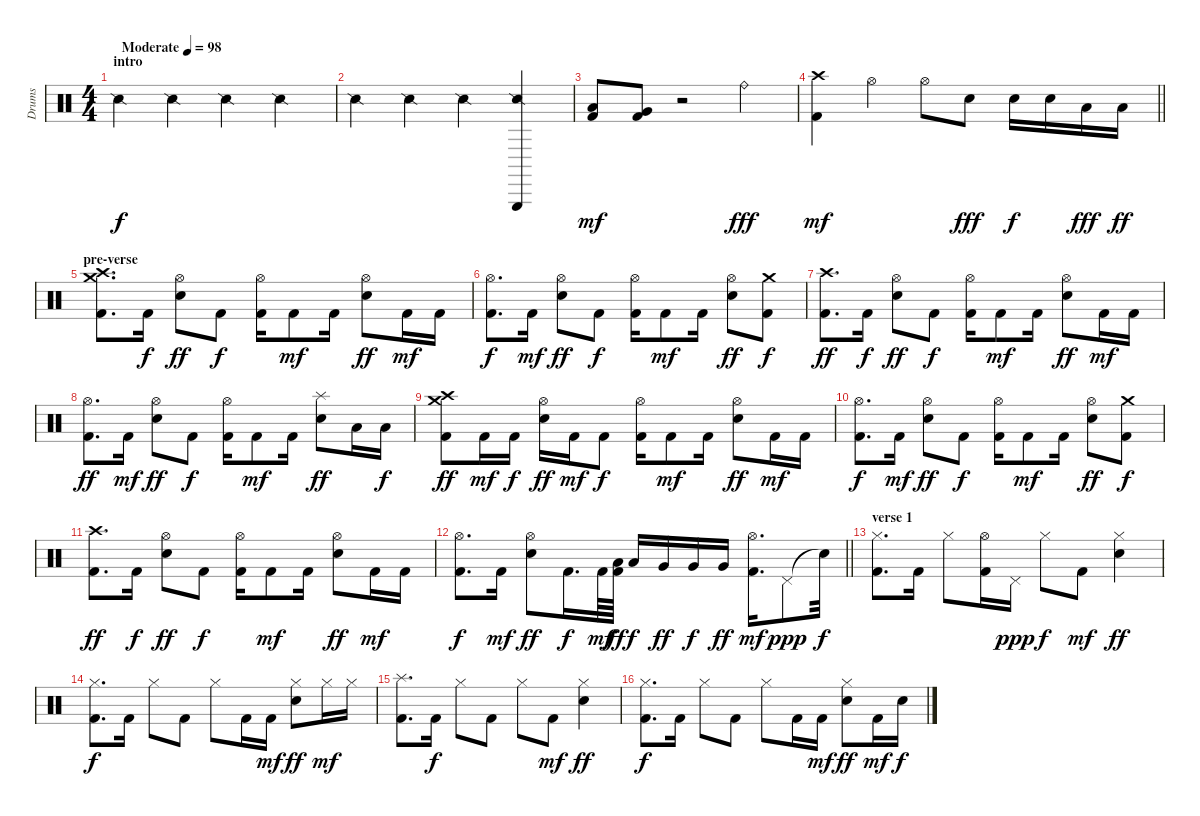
\track ("Drums" "Drums") {instrument percussion}
\staff {score}
\articulation defaults
\ts (4 4)
\section ("" "intro")
\tempo (98 "Moderate")
\clef neutral
\ks c "Snare (side stick) 2".4{dy f} "Snare (side stick) 2".4 "Snare (side stick) 2".4 "Snare (side stick) 2".4
|
"Snare (side stick) 2".4 "Snare (side stick) 2".4 "Snare (side stick) 2".4 ("Triangle (hit)" "Snare (side stick) 2").4 |
("Low Tom (hit)" "Kick (hit) 2").8{dy mf} ("Very Low Tom (hit)" "Kick (hit) 2").8 r.2 "Ride (bell)".4{dy fff} |
\barLineRight lightlight
("Crash high (hit)" "Kick (hit) 2").4{dy mf} "Hi-Hat (open)".4 "Hi-Hat (open)".8 "Electric Snare (hit)".8{dy fff} "Electric Snare (hit)".16{dy f} "Electric Snare (hit)".16 "Low Tom (hit)".16{dy fff} "Low Tom (hit)".16{dy ff} |
\section ("" "pre-verse")
("Crash medium (hit)" "Crash high (hit)" "Kick (hit) 2").8{d} "Kick (hit) 2".16{dy f} ("Hi-Hat (open)" "Electric Snare (hit)").8{dy ff} "Kick (hit) 2".8{dy f} ("Hi-Hat (open)" "Kick (hit) 2").16 "Kick (hit) 2".8{dy mf} "Kick (hit) 2".16 ("Hi-Hat (open)" "Electric Snare (hit)").8{dy ff} "Kick (hit) 2".16{dy mf} "Kick (hit) 2".16 |
("Hi-Hat (open)" "Kick (hit) 2").8{d dy f} "Kick (hit) 2".16{dy mf} ("Hi-Hat (open)" "Electric Snare (hit)").8{dy ff} "Kick (hit) 2".8{dy f} ("Hi-Hat (open)" "Kick (hit) 2").16 "Kick (hit) 2".8{dy mf} "Kick (hit) 2".16 ("Hi-Hat (open)" "Electric Snare (hit)").8{dy ff} ("Crash medium (hit)" "Kick (hit) 2").8{dy f} |
("Crash high (hit)" "Kick (hit) 2").8{d dy ff} "Kick (hit) 2".16{dy f} ("Hi-Hat (open)" "Electric Snare (hit)").8{dy ff} "Kick (hit) 2".8{dy f} ("Hi-Hat (open)" "Kick (hit) 2").16 "Kick (hit) 2".8{dy mf} "Kick (hit) 2".16 ("Hi-Hat (open)" "Electric Snare (hit)").8{dy ff} "Kick (hit) 2".16{dy mf} "Kick (hit) 2".16 |
("Hi-Hat (open)" "Kick (hit) 2").8{d dy ff} "Kick (hit) 2".16{dy mf} ("Hi-Hat (open)" "Electric Snare (hit)").8{dy ff} "Kick (hit) 2".8{dy f} ("Hi-Hat (open)" "Kick (hit) 2").16 "Kick (hit) 2".8{dy mf} "Kick (hit) 2".16 ("Splash (hit)" "Electric Snare (hit)").8{dy ff} "Low Tom (hit)".16 "Low Tom (hit)".16{dy f} |
("Crash medium (hit)" "Crash high (hit)" "Kick (hit) 2").8{dy ff} "Kick (hit) 2".16{dy mf} "Kick (hit) 2".16{dy f} ("Hi-Hat (open)" "Electric Snare (hit)").16{dy ff} "Kick (hit) 2".16{dy mf} "Kick (hit) 2".8{dy f} ("Hi-Hat (open)" "Kick (hit) 2").16 "Kick (hit) 2".8{dy mf} "Kick (hit) 2".16 ("Hi-Hat (open)" "Electric Snare (hit)").8{dy ff} "Kick (hit) 2".16{dy mf} "Kick (hit) 2".16 |
("Hi-Hat (open)" "Kick (hit) 2").8{d dy f} "Kick (hit) 2".16{dy mf} ("Hi-Hat (open)" "Electric Snare (hit)").8{dy ff} "Kick (hit) 2".8{dy f} ("Hi-Hat (open)" "Kick (hit) 2").16 "Kick (hit) 2".8{dy mf} "Kick (hit) 2".16 ("Hi-Hat (open)" "Electric Snare (hit)").8{dy ff} ("Crash medium (hit)" "Kick (hit) 2").8{dy f} |
("Crash high (hit)" "Kick (hit) 2").8{d dy ff} "Kick (hit) 2".16{dy f} ("Hi-Hat (open)" "Electric Snare (hit)").8{dy ff} "Kick (hit) 2".8{dy f} ("Hi-Hat (open)" "Kick (hit) 2").16 "Kick (hit) 2".8{dy mf} "Kick (hit) 2".16 ("Hi-Hat (open)" "Electric Snare (hit)").8{dy ff} "Kick (hit) 2".16{dy mf} "Kick (hit) 2".16 |
\barLineRight lightlight
("Hi-Hat (open)" "Kick (hit) 2").8{d dy f} "Kick (hit) 2".16{dy mf} ("Hi-Hat (open)" "Electric Snare (hit)").8{dy ff} "Kick (hit) 2".16{d dy f} "Kick (hit) 2".64{dy mf} ("Low Tom (hit)" "Kick (hit) 2").64{dy ff} "Low Tom (hit)".16{dy f} "Very Low Tom (hit)".16{dy ff} "Very Low Tom (hit)".16{dy f} "Very Low Tom (hit)".16{dy ff} ("Hi-Hat (open)" "Kick (hit) 2").16{d dy mf} "Pedal Hi-Hat (hit)".8{dy ppp} "Snare (hit)"{t}.32{dy f} |
\section ("" "verse 1")
("Hi-Hat (closed)" "Kick (hit) 2").8{d} "Kick (hit) 2".16 "Hi-Hat (closed)".8 ("Hi-Hat (open)" "Kick (hit) 2").16 "Pedal Hi-Hat (hit)".16{dy ppp} "Hi-Hat (closed)".8{dy f} "Kick (hit) 2".8{dy mf} ("Hi-Hat (closed)" "Electric Snare (hit)").4{dy ff} |
("Hi-Hat (closed)" "Kick (hit) 2").8{d dy f} "Kick (hit) 2".16 "Hi-Hat (closed)".8 "Kick (hit) 2".8 "Hi-Hat (closed)".8 "Kick (hit) 2".16 "Kick (hit) 2".16{dy mf} ("Hi-Hat (closed)" "Electric Snare (hit)").8{dy ff} "Hi-Hat (closed)".16{dy mf} "Hi-Hat (closed)".16 |
("Splash (hit)" "Kick (hit) 2").8{d} "Kick (hit) 2".16{dy f} "Hi-Hat (closed)".8 "Kick (hit) 2".8 "Hi-Hat (closed)".8 "Kick (hit) 2".8{dy mf} ("Hi-Hat (closed)" "Electric Snare (hit)").4{dy ff} |
("Hi-Hat (closed)" "Kick (hit) 2").8{d dy f} "Kick (hit) 2".16 "Hi-Hat (closed)".8 "Kick (hit) 2".8 "Hi-Hat (closed)".8 "Kick (hit) 2".16 "Kick (hit) 2".16{dy mf} ("Hi-Hat (closed)" "Electric Snare (hit)").8{dy ff} "Kick (hit) 2".16{dy mf} "Snare (hit) 2".16{dy f}
